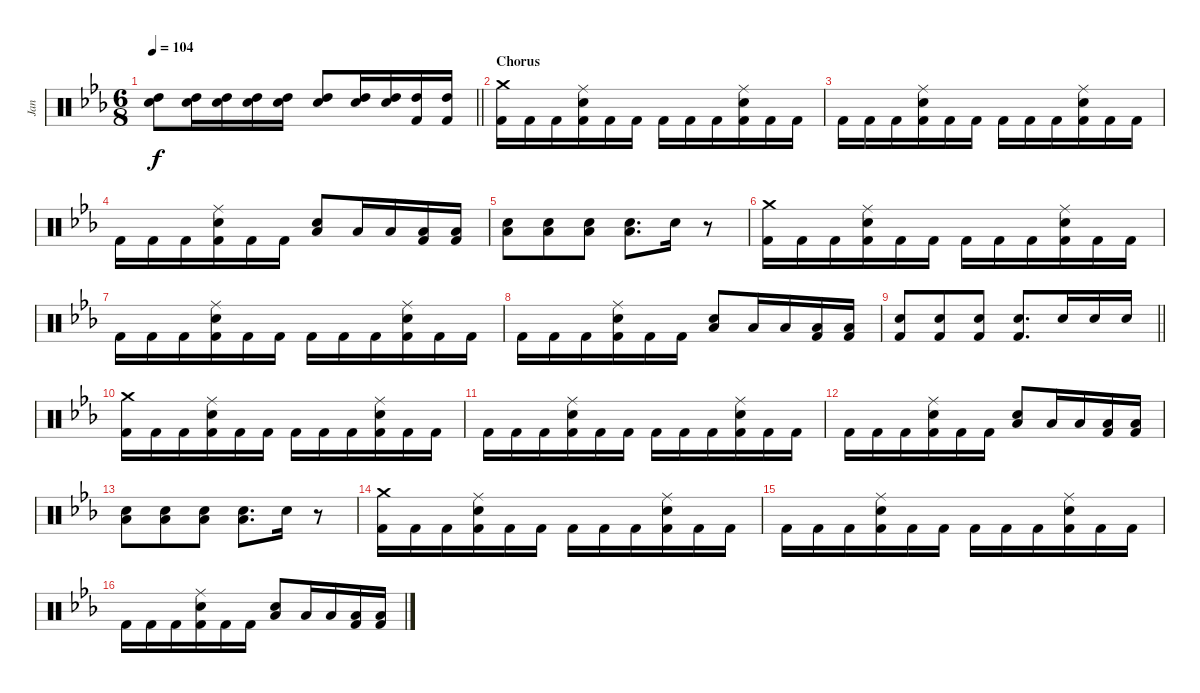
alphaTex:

\track ("Jan" "Jan") {instrument percussion}
\staff {score}
\articulation defaults
\ts (6 8)
\tempo 104
\clef neutral
\barLineRight lightlight
\ks eb
("High Tom (hit)" "Snare (hit) 2").8{dy f} ("High Tom (hit)" "Snare (hit) 2").16 ("High Tom (hit)" "Snare (hit) 2").16 ("High Tom (hit)" "Snare (hit) 2").16 ("High Tom (hit)" "Snare (hit) 2").16 ("High Tom (hit)" "Snare (hit) 2").8 ("High Tom (hit)" "Snare (hit) 2").16 ("High Tom (hit)" "Snare (hit) 2").16 ("High Tom (hit)" "Kick (hit) 2").16 ("High Tom (hit)" "Kick (hit) 2").16 |
\section ("" "Chorus")
("Crash medium (hit)" "Kick (hit) 2").16 "Kick (hit) 2".16 "Kick (hit) 2".16 ("Ride (middle)" "Snare (hit) 2" "Kick (hit) 2").16 "Kick (hit) 2".16 "Kick (hit) 2".16 "Kick (hit) 2".16 "Kick (hit) 2".16 "Kick (hit) 2".16 ("Ride (middle)" "Snare (hit) 2" "Kick (hit) 2").16 "Kick (hit) 2".16 "Kick (hit) 2".16 |
"Kick (hit) 2".16 "Kick (hit) 2".16 "Kick (hit) 2".16 ("Ride (middle)" "Snare (hit) 2" "Kick (hit) 2").16 "Kick (hit) 2".16 "Kick (hit) 2".16 "Kick (hit) 2".16 "Kick (hit) 2".16 "Kick (hit) 2".16 ("Ride (middle)" "Snare (hit) 2" "Kick (hit) 2").16 "Kick (hit) 2".16 "Kick (hit) 2".16 |
"Kick (hit) 2".16 "Kick (hit) 2".16 "Kick (hit) 2".16 ("Ride (middle)" "Snare (hit) 2" "Kick (hit) 2").16 "Kick (hit) 2".16 "Kick (hit) 2".16 ("Low Tom (hit)" "Snare (hit) 2").8 "Low Tom (hit)".16 "Low Tom (hit)".16 ("Low Tom (hit)" "Kick (hit) 2").16 ("Low Tom (hit)" "Kick (hit) 2").16 |
("Low Tom (hit)" "Snare (hit) 2").8 ("Low Tom (hit)" "Snare (hit) 2").8 ("Low Tom (hit)" "Snare (hit) 2").8 ("Low Tom (hit)" "Snare (hit) 2").8{d} "Snare (hit) 2".16 r.8 |
("Crash medium (hit)" "Kick (hit) 2").16 "Kick (hit) 2".16 "Kick (hit) 2".16 ("Ride (middle)" "Snare (hit) 2" "Kick (hit) 2").16 "Kick (hit) 2".16 "Kick (hit) 2".16 "Kick (hit) 2".16 "Kick (hit) 2".16 "Kick (hit) 2".16 ("Ride (middle)" "Snare (hit) 2" "Kick (hit) 2").16 "Kick (hit) 2".16 "Kick (hit) 2".16 |
"Kick (hit) 2".16 "Kick (hit) 2".16 "Kick (hit) 2".16 ("Ride (middle)" "Snare (hit) 2" "Kick (hit) 2").16 "Kick (hit) 2".16 "Kick (hit) 2".16 "Kick (hit) 2".16 "Kick (hit) 2".16 "Kick (hit) 2".16 ("Ride (middle)" "Snare (hit) 2" "Kick (hit) 2").16 "Kick (hit) 2".16 "Kick (hit) 2".16 |
"Kick (hit) 2".16 "Kick (hit) 2".16 "Kick (hit) 2".16 ("Ride (middle)" "Snare (hit) 2" "Kick (hit) 2").16 "Kick (hit) 2".16 "Kick (hit) 2".16 ("Low Tom (hit)" "Snare (hit) 2").8 "Low Tom (hit)".16 "Low Tom (hit)".16 ("Low Tom (hit)" "Kick (hit) 2").16 ("Low Tom (hit)" "Kick (hit) 2").16 |
\barLineRight lightlight
("Snare (hit) 2" "Kick (hit) 2").8 ("Snare (hit) 2" "Kick (hit) 2").8 ("Snare (hit) 2" "Kick (hit) 2").8 ("Snare (hit) 2" "Kick (hit) 2").8{d} "Snare (hit) 2".16 "Snare (hit) 2".16 "Snare (hit) 2".16 |
("Crash medium (hit)" "Kick (hit) 2").16 "Kick (hit) 2".16 "Kick (hit) 2".16 ("Ride (middle)" "Snare (hit) 2" "Kick (hit) 2").16 "Kick (hit) 2".16 "Kick (hit) 2".16 "Kick (hit) 2".16 "Kick (hit) 2".16 "Kick (hit) 2".16 ("Ride (middle)" "Snare (hit) 2" "Kick (hit) 2").16 "Kick (hit) 2".16 "Kick (hit) 2".16 |
"Kick (hit) 2".16 "Kick (hit) 2".16 "Kick (hit) 2".16 ("Ride (middle)" "Snare (hit) 2" "Kick (hit) 2").16 "Kick (hit) 2".16 "Kick (hit) 2".16 "Kick (hit) 2".16 "Kick (hit) 2".16 "Kick (hit) 2".16 ("Ride (middle)" "Snare (hit) 2" "Kick (hit) 2").16 "Kick (hit) 2".16 "Kick (hit) 2".16 |
"Kick (hit) 2".16 "Kick (hit) 2".16 "Kick (hit) 2".16 ("Ride (middle)" "Snare (hit) 2" "Kick (hit) 2").16 "Kick (hit) 2".16 "Kick (hit) 2".16 ("Low Tom (hit)" "Snare (hit) 2").8 "Low Tom (hit)".16 "Low Tom (hit)".16 ("Low Tom (hit)" "Kick (hit) 2").16 ("Low Tom (hit)" "Kick (hit) 2").16 |
("Low Tom (hit)" "Snare (hit) 2").8 ("Low Tom (hit)" "Snare (hit) 2").8 ("Low Tom (hit)" "Snare (hit) 2").8 ("Low Tom (hit)" "Snare (hit) 2").8{d} "Snare (hit) 2".16 r.8 |
("Crash medium (hit)" "Kick (hit) 2").16 "Kick (hit) 2".16 "Kick (hit) 2".16 ("Ride (middle)" "Snare (hit) 2" "Kick (hit) 2").16 "Kick (hit) 2".16 "Kick (hit) 2".16 "Kick (hit) 2".16 "Kick (hit) 2".16 "Kick (hit) 2".16 ("Ride (middle)" "Snare (hit) 2" "Kick (hit) 2").16 "Kick (hit) 2".16 "Kick (hit) 2".16 |
"Kick (hit) 2".16 "Kick (hit) 2".16 "Kick (hit) 2".16 ("Ride (middle)" "Snare (hit) 2" "Kick (hit) 2").16 "Kick (hit) 2".16 "Kick (hit) 2".16 "Kick (hit) 2".16 "Kick (hit) 2".16 "Kick (hit) 2".16 ("Ride (middle)" "Snare (hit) 2" "Kick (hit) 2").16 "Kick (hit) 2".16 "Kick (hit) 2".16 |
"Kick (hit) 2".16 "Kick (hit) 2".16 "Kick (hit) 2".16 ("Ride (middle)" "Snare (hit) 2" "Kick (hit) 2").16 "Kick (hit) 2".16 "Kick (hit) 2".16 ("Low Tom (hit)" "Snare (hit) 2").8 "Low Tom (hit)".16 "Low Tom (hit)".16 ("Low Tom (hit)" "Kick (hit) 2").16 ("Low Tom (hit)" "Kick (hit) 2").16
